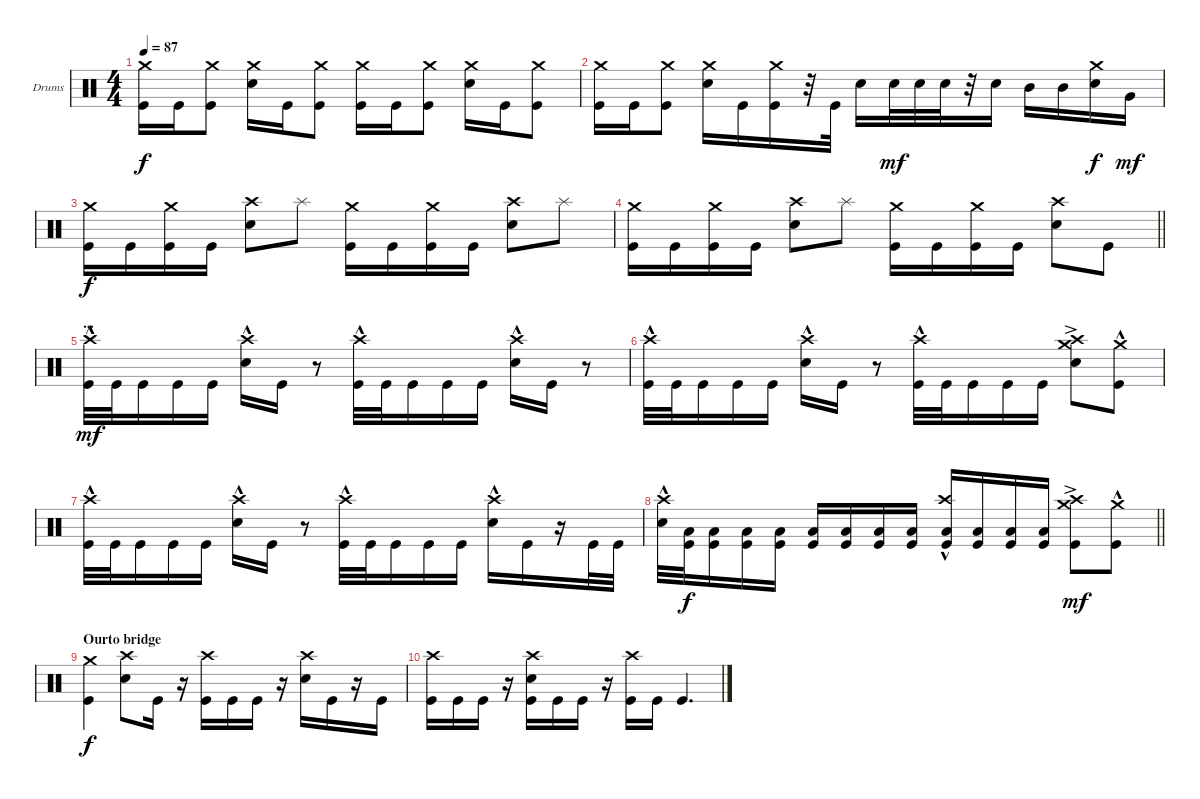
\bracketExtendMode groupsimilarinstruments
\firstSystemTrackNameOrientation horizontal
\otherSystemsTrackNameOrientation horizontal
\track ("Drumkit" "Drums") {instrument percussion}
\staff {score}
\articulation defaults
\ts (4 4)
\tempo 87
\clef neutral
\ks c
("Crash medium (hit)" "Kick (hit)").16{dy f} "Kick (hit)".16 ("Crash medium (hit)" "Kick (hit)").8 ("Crash medium (hit)" "Snare (hit) 2").16 "Kick (hit)".16 ("Crash medium (hit)" "Kick (hit)").8 ("Crash medium (hit)" "Kick (hit)").16 "Kick (hit)".16 ("Crash medium (hit)" "Kick (hit)").8 ("Crash medium (hit)" "Snare (hit) 2").16 "Kick (hit)".16 ("Crash medium (hit)" "Kick (hit)").8 |
("Crash medium (hit)" "Kick (hit)").16 "Kick (hit)".16 ("Crash medium (hit)" "Kick (hit)").8 ("Crash medium (hit)" "Snare (hit) 2").16 "Kick (hit)".16 ("Crash medium (hit)" "Kick (hit)").16 r.32 "Kick (hit)".32 "Snare (hit) 2".16 "Snare (hit) 2".32{dy mf} "Snare (hit) 2".32 "Snare (hit) 2".32 r.32 "Snare (hit) 2".16 "Mid Tom (hit)".16 "Mid Tom (hit)".16 ("Crash medium (hit)" "Snare (hit) 2").16{dy f} "Very Low Tom (hit)".16{dy mf} |
("Crash medium (hit)" "Kick (hit)").16{dy f} "Kick (hit)".16 ("Crash medium (hit)" "Kick (hit)").16 "Kick (hit)".16 ("Crash high (hit)" "Snare (hit) 2").8 "Splash (hit)".8 ("Crash medium (hit)" "Kick (hit)").16 "Kick (hit)".16 ("Crash medium (hit)" "Kick (hit)").16 "Kick (hit)".16 ("Crash high (hit)" "Snare (hit) 2").8 "Splash (hit)".8 |
\barLineRight lightlight
("Crash medium (hit)" "Kick (hit)").16 "Kick (hit)".16 ("Crash medium (hit)" "Kick (hit)").16 "Kick (hit)".16 ("Crash high (hit)" "Snare (hit) 2").8 "Splash (hit)".8 ("Crash medium (hit)" "Kick (hit)").16 "Kick (hit)".16 ("Crash medium (hit)" "Kick (hit)").16 "Kick (hit)".16 ("Crash high (hit)" "Snare (hit) 2").8 "Kick (hit)".8 |
\section ("" "...")
("Crash high (hit)"{hac} "Kick (hit)").32{dy mf} "Kick (hit)".32 "Kick (hit)".16 "Kick (hit)".16 "Kick (hit)".16 ("Crash high (hit)"{hac} "Snare (hit) 2").16 "Kick (hit)".16 r.8 ("Crash high (hit)"{hac} "Kick (hit)").32 "Kick (hit)".32 "Kick (hit)".16 "Kick (hit)".16 "Kick (hit)".16 ("Crash high (hit)"{hac} "Snare (hit) 2").16 "Kick (hit)".16 r.8 |
("Crash high (hit)"{hac} "Kick (hit)").32 "Kick (hit)".32 "Kick (hit)".16 "Kick (hit)".16 "Kick (hit)".16 ("Crash high (hit)"{hac} "Snare (hit) 2").16 "Kick (hit)".16 r.8 ("Crash high (hit)"{hac} "Kick (hit)").32 "Kick (hit)".32 "Kick (hit)".16 "Kick (hit)".16 "Kick (hit)".16 ("Crash high (hit)"{ac} "Crash medium (hit)"{ac} "Snare (hit) 2").8 ("Crash medium (hit)"{hac} "Kick (hit)").8 |
("Crash high (hit)"{hac} "Kick (hit)").32 "Kick (hit)".32 "Kick (hit)".16 "Kick (hit)".16 "Kick (hit)".16 ("Crash high (hit)"{hac} "Snare (hit) 2").16 "Kick (hit)".16 r.8 ("Crash high (hit)"{hac} "Kick (hit)").32 "Kick (hit)".32 "Kick (hit)".16 "Kick (hit)".16 "Kick (hit)".16 ("Crash high (hit)"{hac} "Snare (hit) 2").16 "Kick (hit)".16 r.16 "Kick (hit)".32 "Kick (hit)".32 |
\barLineRight lightlight
("Crash high (hit)"{hac} "Snare (hit) 2").32 ("Low Tom (hit)" "Kick (hit)").32{dy f} ("Low Tom (hit)" "Kick (hit)").16 ("Low Tom (hit)" "Kick (hit)").16 ("Low Tom (hit)" "Kick (hit)").16 ("Low Tom (hit)" "Kick (hit)").16 ("Low Tom (hit)" "Kick (hit)").16 ("Low Tom (hit)" "Kick (hit)").16 ("Low Tom (hit)" "Kick (hit)").16 ("Crash high (hit)"{hac} "Low Tom (hit)" "Kick (hit)").16 ("Low Tom (hit)" "Kick (hit)").16 ("Low Tom (hit)" "Kick (hit)").16 ("Low Tom (hit)" "Kick (hit)").16 ("Crash high (hit)"{ac} "Crash medium (hit)" "Kick (hit)").8{dy mf} ("Crash medium (hit)"{hac} "Kick (hit)").8 |
\section ("" "Ourto bridge")
("Crash medium (hit)" "Kick (hit)").4{dy f} ("Crash high (hit)" "Snare (hit) 2").8 "Kick (hit)".16 r.16 ("Crash high (hit)" "Kick (hit)").16 "Kick (hit)".16 "Kick (hit)".16 r.16 ("Crash high (hit)" "Snare (hit) 2").16 "Kick (hit)".16 r.16 "Kick (hit)".16 |
("Crash high (hit)" "Kick (hit)").16 "Kick (hit)".16 "Kick (hit)".16 r.16 ("Crash high (hit)" "Snare (hit) 2" "Kick (hit)").16 "Kick (hit)".16 "Kick (hit)".16 r.16 ("Crash high (hit)" "Kick (hit)").16 "Kick (hit)".16 "Kick (hit)".4{d}
